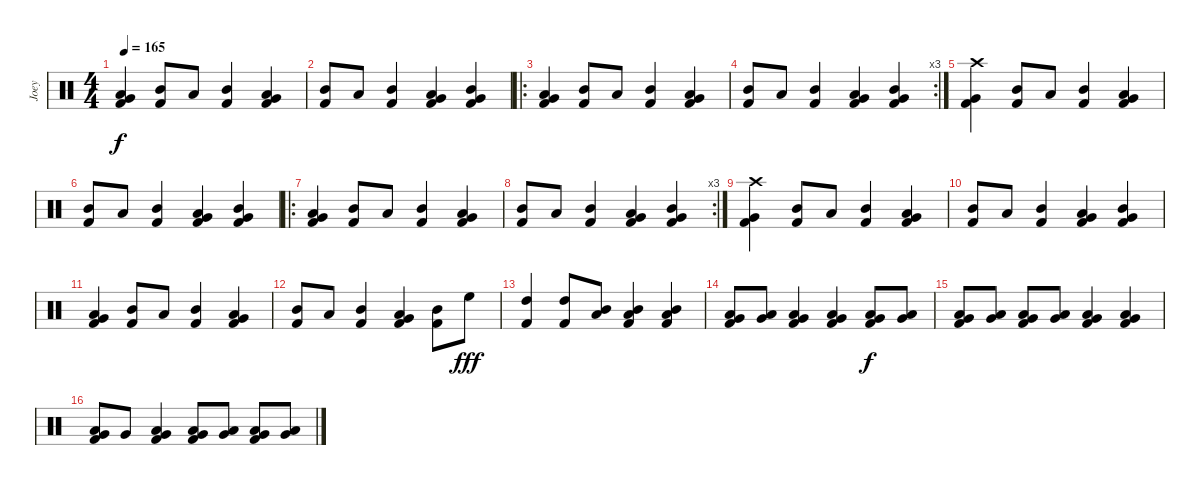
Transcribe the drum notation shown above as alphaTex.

\track ("Joey" "Joey") {instrument percussion}
\staff {score}
\articulation defaults
\ts (4 4)
\tempo 165
\clef neutral
\ks c
("Low Tom (hit)" "Very Low Tom (hit)" "Kick (hit) 2").4{dy f} ("Mid Tom (hit)" "Kick (hit) 2").8 "Low Tom (hit)".8 ("Mid Tom (hit)" "Kick (hit) 2").4 ("Low Tom (hit)" "Very Low Tom (hit)" "Kick (hit) 2").4 |
("Mid Tom (hit)" "Kick (hit) 2").8 "Low Tom (hit)".8 ("Mid Tom (hit)" "Kick (hit) 2").4 ("Low Tom (hit)" "Very Low Tom (hit)" "Kick (hit) 2").4 ("Mid Tom (hit)" "Very Low Tom (hit)" "Kick (hit) 2").4 |
\ro
("Low Tom (hit)" "Very Low Tom (hit)" "Kick (hit) 2").4 ("Mid Tom (hit)" "Kick (hit) 2").8 "Low Tom (hit)".8 ("Mid Tom (hit)" "Kick (hit) 2").4 ("Low Tom (hit)" "Very Low Tom (hit)" "Kick (hit) 2").4 |
\rc 3
("Mid Tom (hit)" "Kick (hit) 2").8 "Low Tom (hit)".8 ("Mid Tom (hit)" "Kick (hit) 2").4 ("Low Tom (hit)" "Very Low Tom (hit)" "Kick (hit) 2").4 ("Mid Tom (hit)" "Very Low Tom (hit)" "Kick (hit) 2").4 |
("Crash high (hit)" "Very Low Tom (hit)" "Kick (hit) 2").4 ("Mid Tom (hit)" "Kick (hit) 2").8 "Low Tom (hit)".8 ("Mid Tom (hit)" "Kick (hit) 2").4 ("Low Tom (hit)" "Very Low Tom (hit)" "Kick (hit) 2").4 |
("Mid Tom (hit)" "Kick (hit) 2").8 "Low Tom (hit)".8 ("Mid Tom (hit)" "Kick (hit) 2").4 ("Low Tom (hit)" "Very Low Tom (hit)" "Kick (hit) 2").4 ("Mid Tom (hit)" "Very Low Tom (hit)" "Kick (hit) 2").4 |
\ro
("Low Tom (hit)" "Very Low Tom (hit)" "Kick (hit) 2").4 ("Mid Tom (hit)" "Kick (hit) 2").8 "Low Tom (hit)".8 ("Mid Tom (hit)" "Kick (hit) 2").4 ("Low Tom (hit)" "Very Low Tom (hit)" "Kick (hit) 2").4 |
\rc 3
("Mid Tom (hit)" "Kick (hit) 2").8 "Low Tom (hit)".8 ("Mid Tom (hit)" "Kick (hit) 2").4 ("Low Tom (hit)" "Very Low Tom (hit)" "Kick (hit) 2").4 ("Mid Tom (hit)" "Very Low Tom (hit)" "Kick (hit) 2").4 |
("Crash high (hit)" "Very Low Tom (hit)" "Kick (hit) 2").4 ("Mid Tom (hit)" "Kick (hit) 2").8 "Low Tom (hit)".8 ("Mid Tom (hit)" "Kick (hit) 2").4 ("Low Tom (hit)" "Very Low Tom (hit)" "Kick (hit) 2").4 |
("Mid Tom (hit)" "Kick (hit) 2").8 "Low Tom (hit)".8 ("Mid Tom (hit)" "Kick (hit) 2").4 ("Low Tom (hit)" "Very Low Tom (hit)" "Kick (hit) 2").4 ("Mid Tom (hit)" "Very Low Tom (hit)" "Kick (hit) 2").4 |
("Low Tom (hit)" "Very Low Tom (hit)" "Kick (hit) 2").4 ("Mid Tom (hit)" "Kick (hit) 2").8 "Low Tom (hit)".8 ("Mid Tom (hit)" "Kick (hit) 2").4 ("Low Tom (hit)" "Very Low Tom (hit)" "Kick (hit) 2").4 |
("Mid Tom (hit)" "Kick (hit) 2").8 "Low Tom (hit)".8 ("Mid Tom (hit)" "Kick (hit) 2").4 ("Low Tom (hit)" "Very Low Tom (hit)" "Kick (hit) 2").4 ("Mid Tom (hit)" "Kick (hit) 2").8 "High Floor Tom (hit)".8{dy fff} |
("High Tom (hit)" "Kick (hit) 2").4 ("High Tom (hit)" "Kick (hit) 2").8 ("Mid Tom (hit)" "Low Tom (hit)").8 ("Mid Tom (hit)" "Low Tom (hit)" "Kick (hit) 2").4 ("Mid Tom (hit)" "Low Tom (hit)" "Kick (hit) 2").4 |
("Low Tom (hit)" "Very Low Tom (hit)" "Kick (hit) 2").8 ("Low Tom (hit)" "Very Low Tom (hit)").8 ("Low Tom (hit)" "Very Low Tom (hit)" "Kick (hit) 2").4 ("Low Tom (hit)" "Very Low Tom (hit)" "Kick (hit) 2").4 ("Very Low Tom (hit)" "Low Floor Tom (hit)" "Kick (hit) 2").8{dy f} ("Very Low Tom (hit)" "Low Floor Tom (hit)").8 |
("Very Low Tom (hit)" "Low Floor Tom (hit)" "Kick (hit) 2").8 ("Very Low Tom (hit)" "Low Floor Tom (hit)").8 ("Very Low Tom (hit)" "Low Floor Tom (hit)" "Kick (hit) 2").8 ("Very Low Tom (hit)" "Low Floor Tom (hit)").8 ("Very Low Tom (hit)" "Low Floor Tom (hit)" "Kick (hit) 2").4 ("Very Low Tom (hit)" "Low Floor Tom (hit)" "Kick (hit) 2").4 |
("Very Low Tom (hit)" "Low Floor Tom (hit)" "Kick (hit) 2").8 "Very Low Tom (hit)".8 ("Very Low Tom (hit)" "Low Floor Tom (hit)" "Kick (hit) 2").4 ("Very Low Tom (hit)" "Low Floor Tom (hit)" "Kick (hit) 2").8 ("Very Low Tom (hit)" "Low Floor Tom (hit)").8 ("Very Low Tom (hit)" "Low Floor Tom (hit)" "Kick (hit) 2").8 ("Very Low Tom (hit)" "Low Floor Tom (hit)").8
